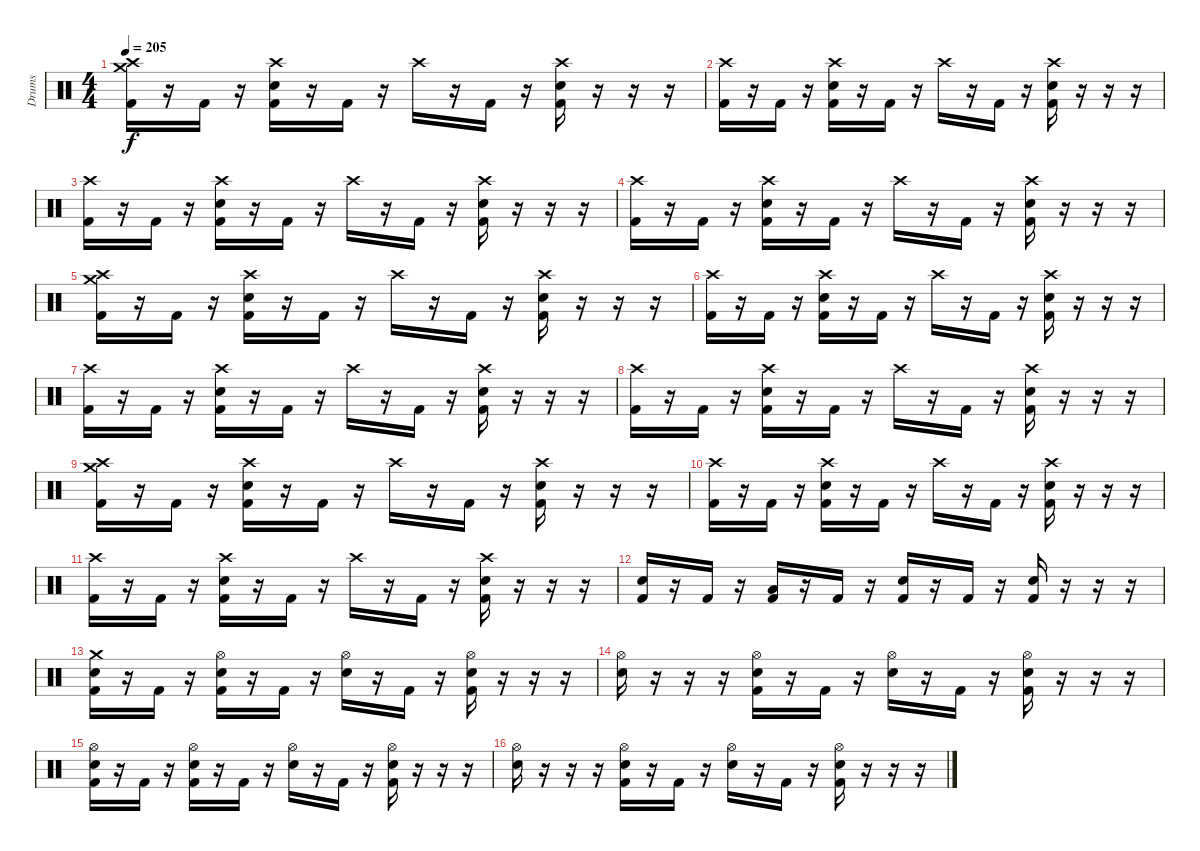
\track ("Drums" "Drums") {instrument percussion}
\staff {score}
\articulation defaults
\ts (4 4)
\tempo 205
\clef neutral
\ks c
("Crash high (hit)" "Crash medium (hit)" "Kick (hit) 2").16{dy f} r.16 "Kick (hit) 2".16 r.16 ("Crash high (hit)" "Electric Snare (hit)" "Kick (hit) 2").16 r.16 "Kick (hit) 2".16 r.16 "Crash high (hit)".16 r.16 "Kick (hit) 2".16 r.16 ("Crash high (hit)" "Electric Snare (hit)" "Kick (hit) 2").16 r.16 r.16 r.16 |
("Crash high (hit)" "Kick (hit) 2").16 r.16 "Kick (hit) 2".16 r.16 ("Crash high (hit)" "Electric Snare (hit)" "Kick (hit) 2").16 r.16 "Kick (hit) 2".16 r.16 "Crash high (hit)".16 r.16 "Kick (hit) 2".16 r.16 ("Crash high (hit)" "Electric Snare (hit)" "Kick (hit) 2").16 r.16 r.16 r.16 |
("Crash high (hit)" "Kick (hit) 2").16 r.16 "Kick (hit) 2".16 r.16 ("Crash high (hit)" "Electric Snare (hit)" "Kick (hit) 2").16 r.16 "Kick (hit) 2".16 r.16 "Crash high (hit)".16 r.16 "Kick (hit) 2".16 r.16 ("Crash high (hit)" "Electric Snare (hit)" "Kick (hit) 2").16 r.16 r.16 r.16 |
("Crash high (hit)" "Kick (hit) 2").16 r.16 "Kick (hit) 2".16 r.16 ("Crash high (hit)" "Electric Snare (hit)" "Kick (hit) 2").16 r.16 "Kick (hit) 2".16 r.16 "Crash high (hit)".16 r.16 "Kick (hit) 2".16 r.16 ("Crash high (hit)" "Electric Snare (hit)" "Kick (hit) 2").16 r.16 r.16 r.16 |
("Crash high (hit)" "Crash medium (hit)" "Kick (hit) 2").16 r.16 "Kick (hit) 2".16 r.16 ("Crash high (hit)" "Electric Snare (hit)" "Kick (hit) 2").16 r.16 "Kick (hit) 2".16 r.16 "Crash high (hit)".16 r.16 "Kick (hit) 2".16 r.16 ("Crash high (hit)" "Electric Snare (hit)" "Kick (hit) 2").16 r.16 r.16 r.16 |
("Crash high (hit)" "Kick (hit) 2").16 r.16 "Kick (hit) 2".16 r.16 ("Crash high (hit)" "Electric Snare (hit)" "Kick (hit) 2").16 r.16 "Kick (hit) 2".16 r.16 "Crash high (hit)".16 r.16 "Kick (hit) 2".16 r.16 ("Crash high (hit)" "Electric Snare (hit)" "Kick (hit) 2").16 r.16 r.16 r.16 |
("Crash high (hit)" "Kick (hit) 2").16 r.16 "Kick (hit) 2".16 r.16 ("Crash high (hit)" "Electric Snare (hit)" "Kick (hit) 2").16 r.16 "Kick (hit) 2".16 r.16 "Crash high (hit)".16 r.16 "Kick (hit) 2".16 r.16 ("Crash high (hit)" "Electric Snare (hit)" "Kick (hit) 2").16 r.16 r.16 r.16 |
("Crash high (hit)" "Kick (hit) 2").16 r.16 "Kick (hit) 2".16 r.16 ("Crash high (hit)" "Electric Snare (hit)" "Kick (hit) 2").16 r.16 "Kick (hit) 2".16 r.16 "Crash high (hit)".16 r.16 "Kick (hit) 2".16 r.16 ("Crash high (hit)" "Electric Snare (hit)" "Kick (hit) 2").16 r.16 r.16 r.16 |
("Crash high (hit)" "Crash medium (hit)" "Kick (hit) 2").16 r.16 "Kick (hit) 2".16 r.16 ("Crash high (hit)" "Electric Snare (hit)" "Kick (hit) 2").16 r.16 "Kick (hit) 2".16 r.16 "Crash high (hit)".16 r.16 "Kick (hit) 2".16 r.16 ("Crash high (hit)" "Electric Snare (hit)" "Kick (hit) 2").16 r.16 r.16 r.16 |
("Crash high (hit)" "Kick (hit) 2").16 r.16 "Kick (hit) 2".16 r.16 ("Crash high (hit)" "Electric Snare (hit)" "Kick (hit) 2").16 r.16 "Kick (hit) 2".16 r.16 "Crash high (hit)".16 r.16 "Kick (hit) 2".16 r.16 ("Crash high (hit)" "Electric Snare (hit)" "Kick (hit) 2").16 r.16 r.16 r.16 |
("Crash high (hit)" "Kick (hit) 2").16 r.16 "Kick (hit) 2".16 r.16 ("Crash high (hit)" "Electric Snare (hit)" "Kick (hit) 2").16 r.16 "Kick (hit) 2".16 r.16 "Crash high (hit)".16 r.16 "Kick (hit) 2".16 r.16 ("Crash high (hit)" "Electric Snare (hit)" "Kick (hit) 2").16 r.16 r.16 r.16 |
("Electric Snare (hit)" "Kick (hit) 2").16 r.16 "Kick (hit) 2".16 r.16 ("Low Tom (hit)" "Kick (hit) 2").16 r.16 "Kick (hit) 2".16 r.16 ("Electric Snare (hit)" "Kick (hit) 2").16 r.16 "Kick (hit) 2".16 r.16 ("Electric Snare (hit)" "Kick (hit) 2").16 r.16 r.16 r.16 |
("Crash medium (hit)" "Electric Snare (hit)" "Kick (hit) 2").16 r.16 "Kick (hit) 2".16 r.16 ("Hi-Hat (open)" "Electric Snare (hit)" "Kick (hit) 2").16 r.16 "Kick (hit) 2".16 r.16 ("Hi-Hat (open)" "Electric Snare (hit)").16 r.16 "Kick (hit) 2".16 r.16 ("Hi-Hat (open)" "Electric Snare (hit)" "Kick (hit) 2").16 r.16 r.16 r.16 |
("Hi-Hat (open)" "Electric Snare (hit)").16 r.16 r.16 r.16 ("Hi-Hat (open)" "Electric Snare (hit)" "Kick (hit) 2").16 r.16 "Kick (hit) 2".16 r.16 ("Hi-Hat (open)" "Electric Snare (hit)").16 r.16 "Kick (hit) 2".16 r.16 ("Hi-Hat (open)" "Electric Snare (hit)" "Kick (hit) 2").16 r.16 r.16 r.16 |
("Hi-Hat (open)" "Electric Snare (hit)" "Kick (hit) 2").16 r.16 "Kick (hit) 2".16 r.16 ("Hi-Hat (open)" "Electric Snare (hit)" "Kick (hit) 2").16 r.16 "Kick (hit) 2".16 r.16 ("Hi-Hat (open)" "Electric Snare (hit)").16 r.16 "Kick (hit) 2".16 r.16 ("Hi-Hat (open)" "Electric Snare (hit)" "Kick (hit) 2").16 r.16 r.16 r.16 |
("Hi-Hat (open)" "Electric Snare (hit)").16 r.16 r.16 r.16 ("Hi-Hat (open)" "Electric Snare (hit)" "Kick (hit) 2").16 r.16 "Kick (hit) 2".16 r.16 ("Hi-Hat (open)" "Electric Snare (hit)").16 r.16 "Kick (hit) 2".16 r.16 ("Hi-Hat (open)" "Electric Snare (hit)" "Kick (hit) 2").16 r.16 r.16 r.16
